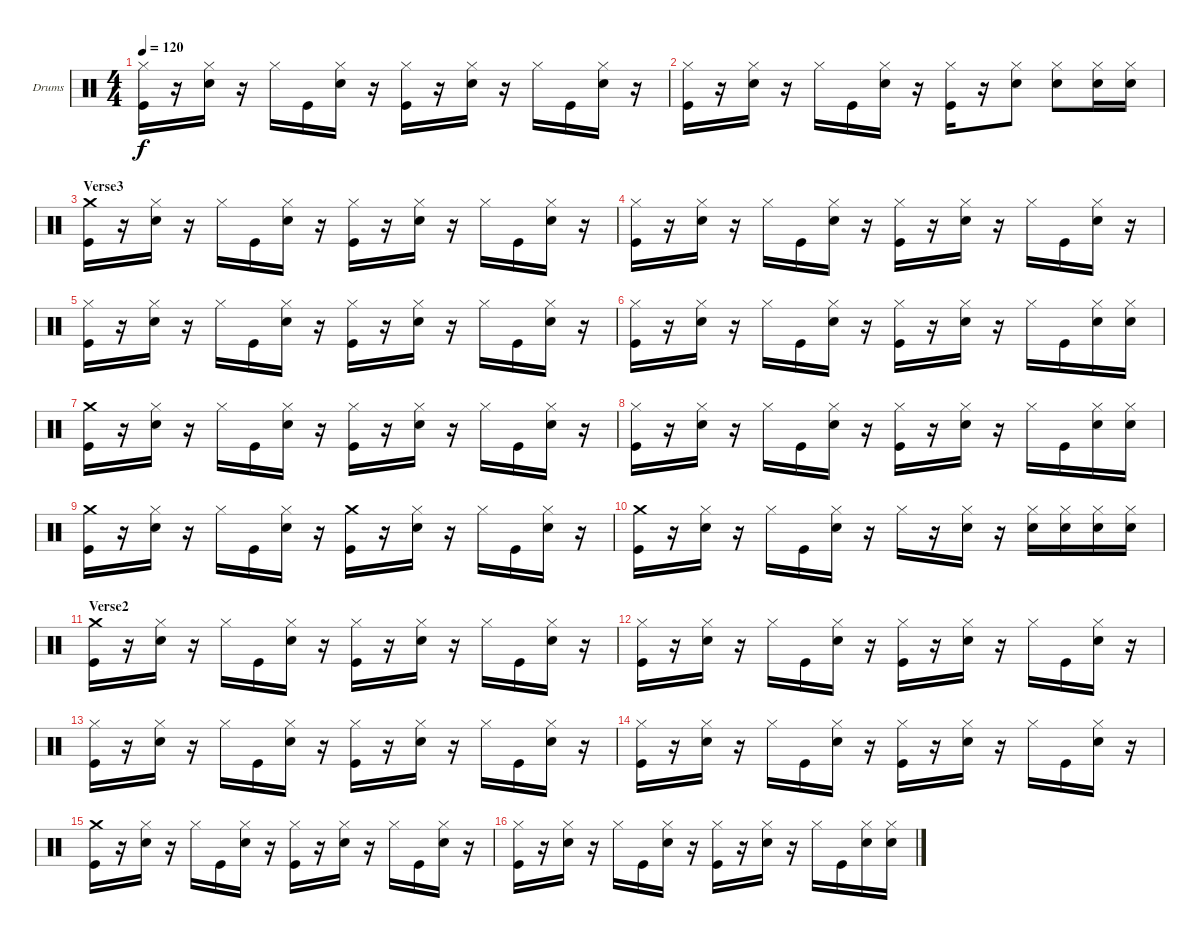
\defaultSystemsLayout 4
\bracketExtendMode groupsimilarinstruments
\firstSystemTrackNameOrientation horizontal
\otherSystemsTrackNameOrientation horizontal
\track ("Jerinx" "Drums") {instrument percussion}
\staff {score}
\articulation defaults
\ts (4 4)
\tempo 120
\clef neutral
\ks c
("Kick (hit)" "Hi-Hat (closed)").16{dy f} r.16 ("Snare (hit) 2" "Hi-Hat (closed)").16 r.16 "Hi-Hat (closed)".16 "Kick (hit)".16 ("Snare (hit) 2" "Hi-Hat (closed)").16 r.16 ("Kick (hit)" "Hi-Hat (closed)").16 r.16 ("Snare (hit) 2" "Hi-Hat (closed)").16 r.16 "Hi-Hat (closed)".16 "Kick (hit)".16 ("Snare (hit) 2" "Hi-Hat (closed)").16 r.16 |
("Kick (hit)" "Hi-Hat (closed)").16 r.16 ("Snare (hit) 2" "Hi-Hat (closed)").16 r.16 "Hi-Hat (closed)".16 "Kick (hit)".16 ("Snare (hit) 2" "Hi-Hat (closed)").16 r.16 ("Kick (hit)" "Hi-Hat (closed)").16 r.16 ("Snare (hit) 2" "Hi-Hat (closed)").8 ("Snare (hit) 2" "Hi-Hat (closed)").8 ("Snare (hit) 2" "Hi-Hat (closed)").16 ("Snare (hit) 2" "Hi-Hat (closed)").16 |
\section ("" "Verse3")
("Kick (hit)" "Crash medium (hit)").16 r.16 ("Snare (hit) 2" "Hi-Hat (closed)").16 r.16 "Hi-Hat (closed)".16 "Kick (hit)".16 ("Snare (hit) 2" "Hi-Hat (closed)").16 r.16 ("Kick (hit)" "Hi-Hat (closed)").16 r.16 ("Snare (hit) 2" "Hi-Hat (closed)").16 r.16 "Hi-Hat (closed)".16 "Kick (hit)".16 ("Snare (hit) 2" "Hi-Hat (closed)").16 r.16 |
("Kick (hit)" "Hi-Hat (closed)").16 r.16 ("Snare (hit) 2" "Hi-Hat (closed)").16 r.16 "Hi-Hat (closed)".16 "Kick (hit)".16 ("Snare (hit) 2" "Hi-Hat (closed)").16 r.16 ("Kick (hit)" "Hi-Hat (closed)").16 r.16 ("Snare (hit) 2" "Hi-Hat (closed)").16 r.16 "Hi-Hat (closed)".16 "Kick (hit)".16 ("Snare (hit) 2" "Hi-Hat (closed)").16 r.16 |
("Kick (hit)" "Hi-Hat (closed)").16 r.16 ("Snare (hit) 2" "Hi-Hat (closed)").16 r.16 "Hi-Hat (closed)".16 "Kick (hit)".16 ("Snare (hit) 2" "Hi-Hat (closed)").16 r.16 ("Kick (hit)" "Hi-Hat (closed)").16 r.16 ("Snare (hit) 2" "Hi-Hat (closed)").16 r.16 "Hi-Hat (closed)".16 "Kick (hit)".16 ("Snare (hit) 2" "Hi-Hat (closed)").16 r.16 |
("Kick (hit)" "Hi-Hat (closed)").16 r.16 ("Snare (hit) 2" "Hi-Hat (closed)").16 r.16 "Hi-Hat (closed)".16 "Kick (hit)".16 ("Snare (hit) 2" "Hi-Hat (closed)").16 r.16 ("Kick (hit)" "Hi-Hat (closed)").16 r.16 ("Snare (hit) 2" "Hi-Hat (closed)").16 r.16 "Hi-Hat (closed)".16 "Kick (hit)".16 ("Snare (hit) 2" "Hi-Hat (closed)").16 ("Snare (hit) 2" "Hi-Hat (closed)").16 |
("Kick (hit)" "Crash medium (hit)").16 r.16 ("Snare (hit) 2" "Hi-Hat (closed)").16 r.16 "Hi-Hat (closed)".16 "Kick (hit)".16 ("Snare (hit) 2" "Hi-Hat (closed)").16 r.16 ("Kick (hit)" "Hi-Hat (closed)").16 r.16 ("Snare (hit) 2" "Hi-Hat (closed)").16 r.16 "Hi-Hat (closed)".16 "Kick (hit)".16 ("Snare (hit) 2" "Hi-Hat (closed)").16 r.16 |
("Kick (hit)" "Hi-Hat (closed)").16 r.16 ("Snare (hit) 2" "Hi-Hat (closed)").16 r.16 "Hi-Hat (closed)".16 "Kick (hit)".16 ("Snare (hit) 2" "Hi-Hat (closed)").16 r.16 ("Kick (hit)" "Hi-Hat (closed)").16 r.16 ("Snare (hit) 2" "Hi-Hat (closed)").16 r.16 "Hi-Hat (closed)".16 "Kick (hit)".16 ("Snare (hit) 2" "Hi-Hat (closed)").16 ("Snare (hit) 2" "Hi-Hat (closed)").16 |
("Kick (hit)" "Crash medium (hit)").16 r.16 ("Snare (hit) 2" "Hi-Hat (closed)").16 r.16 "Hi-Hat (closed)".16 "Kick (hit)".16 ("Snare (hit) 2" "Hi-Hat (closed)").16 r.16 ("Kick (hit)" "Crash medium (hit)").16 r.16 ("Snare (hit) 2" "Hi-Hat (closed)").16 r.16 "Hi-Hat (closed)".16 "Kick (hit)".16 ("Snare (hit) 2" "Hi-Hat (closed)").16 r.16 |
("Kick (hit)" "Crash medium (hit)").16 r.16 ("Snare (hit) 2" "Hi-Hat (closed)").16 r.16 "Hi-Hat (closed)".16 "Kick (hit)".16 ("Snare (hit) 2" "Hi-Hat (closed)").16 r.16 "Hi-Hat (closed)".16 r.16 ("Snare (hit) 2" "Hi-Hat (closed)").16 r.16 ("Snare (hit) 2" "Hi-Hat (closed)").16 ("Snare (hit) 2" "Hi-Hat (closed)").16 ("Snare (hit) 2" "Hi-Hat (closed)").16 ("Snare (hit) 2" "Hi-Hat (closed)").16 |
\section ("" "Verse2")
("Kick (hit)" "Crash medium (hit)").16 r.16 ("Snare (hit) 2" "Hi-Hat (closed)").16 r.16 "Hi-Hat (closed)".16 "Kick (hit)".16 ("Snare (hit) 2" "Hi-Hat (closed)").16 r.16 ("Kick (hit)" "Hi-Hat (closed)").16 r.16 ("Snare (hit) 2" "Hi-Hat (closed)").16 r.16 "Hi-Hat (closed)".16 "Kick (hit)".16 ("Snare (hit) 2" "Hi-Hat (closed)").16 r.16 |
("Kick (hit)" "Hi-Hat (closed)").16 r.16 ("Snare (hit) 2" "Hi-Hat (closed)").16 r.16 "Hi-Hat (closed)".16 "Kick (hit)".16 ("Snare (hit) 2" "Hi-Hat (closed)").16 r.16 ("Kick (hit)" "Hi-Hat (closed)").16 r.16 ("Snare (hit) 2" "Hi-Hat (closed)").16 r.16 "Hi-Hat (closed)".16 "Kick (hit)".16 ("Snare (hit) 2" "Hi-Hat (closed)").16 r.16 |
("Kick (hit)" "Hi-Hat (closed)").16 r.16 ("Snare (hit) 2" "Hi-Hat (closed)").16 r.16 "Hi-Hat (closed)".16 "Kick (hit)".16 ("Snare (hit) 2" "Hi-Hat (closed)").16 r.16 ("Kick (hit)" "Hi-Hat (closed)").16 r.16 ("Snare (hit) 2" "Hi-Hat (closed)").16 r.16 "Hi-Hat (closed)".16 "Kick (hit)".16 ("Snare (hit) 2" "Hi-Hat (closed)").16 r.16 |
("Kick (hit)" "Hi-Hat (closed)").16 r.16 ("Snare (hit) 2" "Hi-Hat (closed)").16 r.16 "Hi-Hat (closed)".16 "Kick (hit)".16 ("Snare (hit) 2" "Hi-Hat (closed)").16 r.16 ("Kick (hit)" "Hi-Hat (closed)").16 r.16 ("Snare (hit) 2" "Hi-Hat (closed)").16 r.16 "Hi-Hat (closed)".16 "Kick (hit)".16 ("Snare (hit) 2" "Hi-Hat (closed)").16 r.16 |
("Kick (hit)" "Crash medium (hit)").16 r.16 ("Snare (hit) 2" "Hi-Hat (closed)").16 r.16 "Hi-Hat (closed)".16 "Kick (hit)".16 ("Snare (hit) 2" "Hi-Hat (closed)").16 r.16 ("Kick (hit)" "Hi-Hat (closed)").16 r.16 ("Snare (hit) 2" "Hi-Hat (closed)").16 r.16 "Hi-Hat (closed)".16 "Kick (hit)".16 ("Snare (hit) 2" "Hi-Hat (closed)").16 r.16 |
("Kick (hit)" "Hi-Hat (closed)").16 r.16 ("Snare (hit) 2" "Hi-Hat (closed)").16 r.16 "Hi-Hat (closed)".16 "Kick (hit)".16 ("Snare (hit) 2" "Hi-Hat (closed)").16 r.16 ("Kick (hit)" "Hi-Hat (closed)").16 r.16 ("Snare (hit) 2" "Hi-Hat (closed)").16 r.16 "Hi-Hat (closed)".16 "Kick (hit)".16 ("Snare (hit) 2" "Hi-Hat (closed)").16 ("Snare (hit) 2" "Hi-Hat (closed)").16
